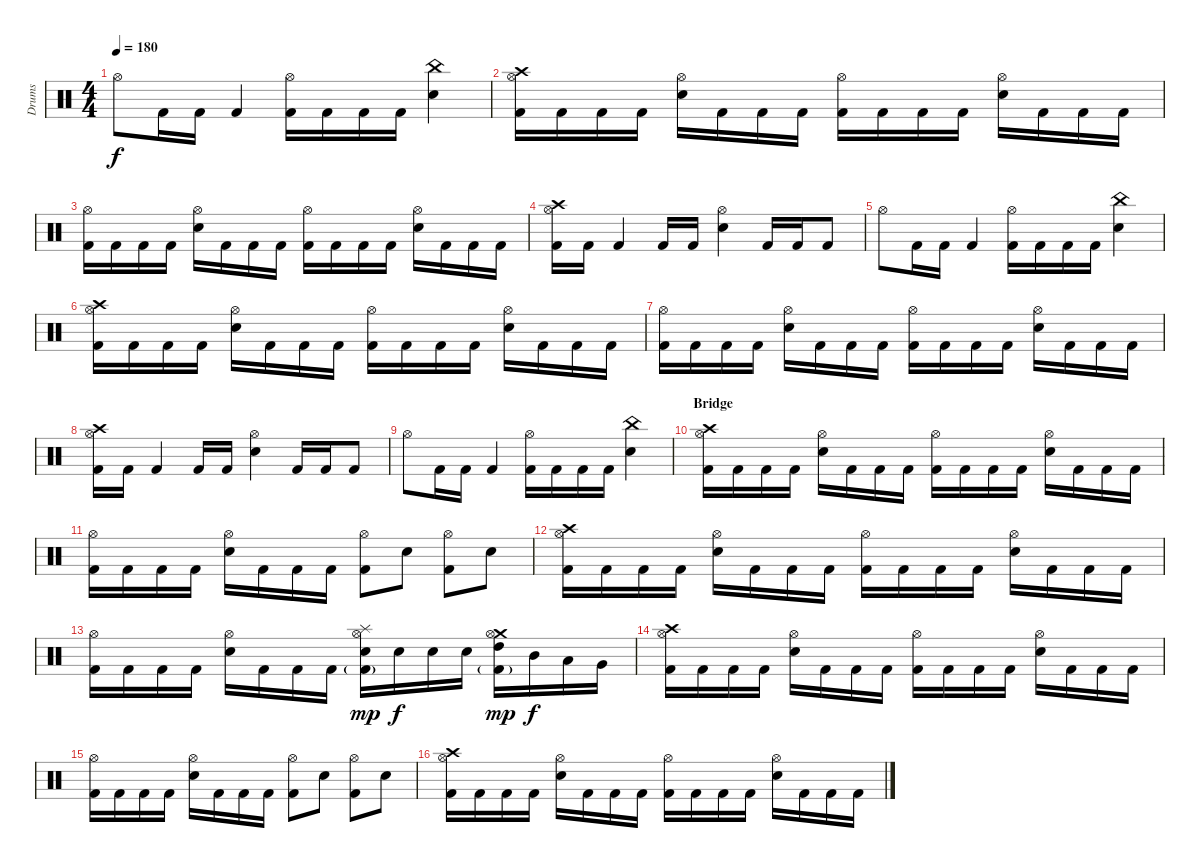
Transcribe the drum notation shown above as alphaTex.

\track ("Drums" "Drums") {instrument percussion}
\staff {score}
\articulation defaults
\ts (4 4)
\tempo 180
\clef neutral
\ks c "Hi-Hat (open)".8{dy f} "Kick (hit) 2".16 "Kick (hit) 2".16 "Kick (hit) 2".4
("Hi-Hat (open)" "Kick (hit) 2").16 "Kick (hit) 2".16 "Kick (hit) 2".16 "Kick (hit) 2".16 ("China (hit)" "Electric Snare (hit)").4 |
("Crash high (hit)" "Hi-Hat (open)" "Kick (hit) 2").16 "Kick (hit) 2".16 "Kick (hit) 2".16 "Kick (hit) 2".16 ("Hi-Hat (open)" "Electric Snare (hit)").16 "Kick (hit) 2".16 "Kick (hit) 2".16 "Kick (hit) 2".16 ("Hi-Hat (open)" "Kick (hit) 2").16 "Kick (hit) 2".16 "Kick (hit) 2".16 "Kick (hit) 2".16 ("Hi-Hat (open)" "Electric Snare (hit)").16 "Kick (hit) 2".16 "Kick (hit) 2".16 "Kick (hit) 2".16 |
("Hi-Hat (open)" "Kick (hit) 2").16 "Kick (hit) 2".16 "Kick (hit) 2".16 "Kick (hit) 2".16 ("Hi-Hat (open)" "Electric Snare (hit)").16 "Kick (hit) 2".16 "Kick (hit) 2".16 "Kick (hit) 2".16 ("Hi-Hat (open)" "Kick (hit) 2").16 "Kick (hit) 2".16 "Kick (hit) 2".16 "Kick (hit) 2".16 ("Hi-Hat (open)" "Electric Snare (hit)").16 "Kick (hit) 2".16 "Kick (hit) 2".16 "Kick (hit) 2".16 |
("Crash high (hit)" "Hi-Hat (open)" "Kick (hit) 2").16 "Kick (hit) 2".16 "Kick (hit) 2".4 "Kick (hit) 2".16 "Kick (hit) 2".16 ("Hi-Hat (open)" "Electric Snare (hit)").4 "Kick (hit) 2".16 "Kick (hit) 2".16 "Kick (hit) 2".8 |
"Hi-Hat (open)".8 "Kick (hit) 2".16 "Kick (hit) 2".16 "Kick (hit) 2".4 ("Hi-Hat (open)" "Kick (hit) 2").16 "Kick (hit) 2".16 "Kick (hit) 2".16 "Kick (hit) 2".16 ("China (hit)" "Electric Snare (hit)").4 |
("Crash high (hit)" "Hi-Hat (open)" "Kick (hit) 2").16 "Kick (hit) 2".16 "Kick (hit) 2".16 "Kick (hit) 2".16 ("Hi-Hat (open)" "Electric Snare (hit)").16 "Kick (hit) 2".16 "Kick (hit) 2".16 "Kick (hit) 2".16 ("Hi-Hat (open)" "Kick (hit) 2").16 "Kick (hit) 2".16 "Kick (hit) 2".16 "Kick (hit) 2".16 ("Hi-Hat (open)" "Electric Snare (hit)").16 "Kick (hit) 2".16 "Kick (hit) 2".16 "Kick (hit) 2".16 |
("Hi-Hat (open)" "Kick (hit) 2").16 "Kick (hit) 2".16 "Kick (hit) 2".16 "Kick (hit) 2".16 ("Hi-Hat (open)" "Electric Snare (hit)").16 "Kick (hit) 2".16 "Kick (hit) 2".16 "Kick (hit) 2".16 ("Hi-Hat (open)" "Kick (hit) 2").16 "Kick (hit) 2".16 "Kick (hit) 2".16 "Kick (hit) 2".16 ("Hi-Hat (open)" "Electric Snare (hit)").16 "Kick (hit) 2".16 "Kick (hit) 2".16 "Kick (hit) 2".16 |
("Crash high (hit)" "Hi-Hat (open)" "Kick (hit) 2").16 "Kick (hit) 2".16 "Kick (hit) 2".4 "Kick (hit) 2".16 "Kick (hit) 2".16 ("Hi-Hat (open)" "Electric Snare (hit)").4 "Kick (hit) 2".16 "Kick (hit) 2".16 "Kick (hit) 2".8 |
"Hi-Hat (open)".8 "Kick (hit) 2".16 "Kick (hit) 2".16 "Kick (hit) 2".4 ("Hi-Hat (open)" "Kick (hit) 2").16 "Kick (hit) 2".16 "Kick (hit) 2".16 "Kick (hit) 2".16 ("China (hit)" "Electric Snare (hit)").4 |
\section ("" "Bridge")
("Crash high (hit)" "Hi-Hat (open)" "Kick (hit) 2").16 "Kick (hit) 2".16 "Kick (hit) 2".16 "Kick (hit) 2".16 ("Hi-Hat (open)" "Electric Snare (hit)").16 "Kick (hit) 2".16 "Kick (hit) 2".16 "Kick (hit) 2".16 ("Hi-Hat (open)" "Kick (hit) 2").16 "Kick (hit) 2".16 "Kick (hit) 2".16 "Kick (hit) 2".16 ("Hi-Hat (open)" "Electric Snare (hit)").16 "Kick (hit) 2".16 "Kick (hit) 2".16 "Kick (hit) 2".16 |
("Hi-Hat (open)" "Kick (hit) 2").16 "Kick (hit) 2".16 "Kick (hit) 2".16 "Kick (hit) 2".16 ("Hi-Hat (open)" "Electric Snare (hit)").16 "Kick (hit) 2".16 "Kick (hit) 2".16 "Kick (hit) 2".16 ("Hi-Hat (open)" "Kick (hit) 2").8 "Electric Snare (hit)".8 ("Hi-Hat (open)" "Kick (hit) 2").8 "Electric Snare (hit)".8 |
("Crash high (hit)" "Hi-Hat (open)" "Kick (hit) 2").16 "Kick (hit) 2".16 "Kick (hit) 2".16 "Kick (hit) 2".16 ("Hi-Hat (open)" "Electric Snare (hit)").16 "Kick (hit) 2".16 "Kick (hit) 2".16 "Kick (hit) 2".16 ("Hi-Hat (open)" "Kick (hit) 2").16 "Kick (hit) 2".16 "Kick (hit) 2".16 "Kick (hit) 2".16 ("Hi-Hat (open)" "Electric Snare (hit)").16 "Kick (hit) 2".16 "Kick (hit) 2".16 "Kick (hit) 2".16 |
("Hi-Hat (open)" "Kick (hit) 2").16 "Kick (hit) 2".16 "Kick (hit) 2".16 "Kick (hit) 2".16 ("Hi-Hat (open)" "Electric Snare (hit)").16 "Kick (hit) 2".16 "Kick (hit) 2".16 "Kick (hit) 2".16 ("Splash (hit)" "Hi-Hat (open)" "Electric Snare (hit)" "Kick (hit) 2"{g}).16{dy mp} "Electric Snare (hit)".16{dy f} "Electric Snare (hit)".16 "Electric Snare (hit)".16 ("Crash medium (hit)" "Hi-Hat (open)" "High Tom (hit)" "Kick (hit) 2"{g}).16{dy mp} "Mid Tom (hit)".16{dy f} "Low Tom (hit)".16 "Very Low Tom (hit)".16 |
("Crash high (hit)" "Hi-Hat (open)" "Kick (hit) 2").16 "Kick (hit) 2".16 "Kick (hit) 2".16 "Kick (hit) 2".16 ("Hi-Hat (open)" "Electric Snare (hit)").16 "Kick (hit) 2".16 "Kick (hit) 2".16 "Kick (hit) 2".16 ("Hi-Hat (open)" "Kick (hit) 2").16 "Kick (hit) 2".16 "Kick (hit) 2".16 "Kick (hit) 2".16 ("Hi-Hat (open)" "Electric Snare (hit)").16 "Kick (hit) 2".16 "Kick (hit) 2".16 "Kick (hit) 2".16 |
("Hi-Hat (open)" "Kick (hit) 2").16 "Kick (hit) 2".16 "Kick (hit) 2".16 "Kick (hit) 2".16 ("Hi-Hat (open)" "Electric Snare (hit)").16 "Kick (hit) 2".16 "Kick (hit) 2".16 "Kick (hit) 2".16 ("Hi-Hat (open)" "Kick (hit) 2").8 "Electric Snare (hit)".8 ("Hi-Hat (open)" "Kick (hit) 2").8 "Electric Snare (hit)".8 |
("Crash high (hit)" "Hi-Hat (open)" "Kick (hit) 2").16 "Kick (hit) 2".16 "Kick (hit) 2".16 "Kick (hit) 2".16 ("Hi-Hat (open)" "Electric Snare (hit)").16 "Kick (hit) 2".16 "Kick (hit) 2".16 "Kick (hit) 2".16 ("Hi-Hat (open)" "Kick (hit) 2").16 "Kick (hit) 2".16 "Kick (hit) 2".16 "Kick (hit) 2".16 ("Hi-Hat (open)" "Electric Snare (hit)").16 "Kick (hit) 2".16 "Kick (hit) 2".16 "Kick (hit) 2".16
